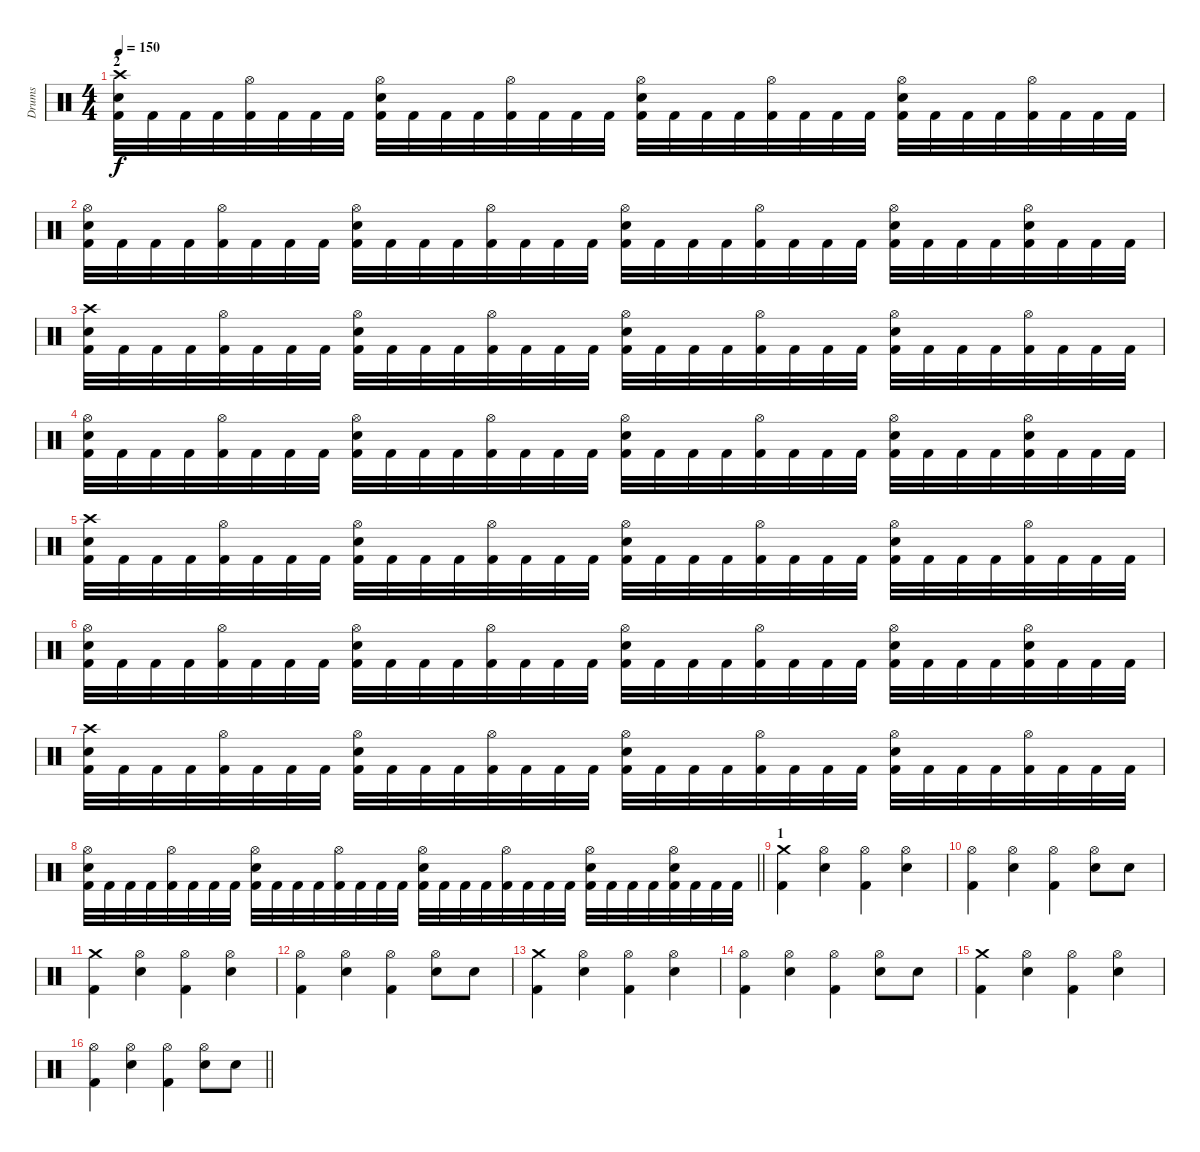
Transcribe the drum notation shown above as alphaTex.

\track ("Drums" "Drums") {instrument percussion}
\staff {score}
\articulation defaults
\ts (4 4)
\section ("" "2")
\tempo 150
\clef neutral
\ks c
("Crash high (hit)" "Snare (hit) 2" "Kick (hit) 2").32{dy f} "Kick (hit) 2".32 "Kick (hit) 2".32 "Kick (hit) 2".32 ("Hi-Hat (open)" "Kick (hit) 2").32 "Kick (hit) 2".32 "Kick (hit) 2".32 "Kick (hit) 2".32 ("Hi-Hat (open)" "Snare (hit) 2" "Kick (hit) 2").32 "Kick (hit) 2".32 "Kick (hit) 2".32 "Kick (hit) 2".32 ("Hi-Hat (open)" "Kick (hit) 2").32 "Kick (hit) 2".32 "Kick (hit) 2".32 "Kick (hit) 2".32 ("Hi-Hat (open)" "Snare (hit) 2" "Kick (hit) 2").32 "Kick (hit) 2".32 "Kick (hit) 2".32 "Kick (hit) 2".32 ("Hi-Hat (open)" "Kick (hit) 2").32 "Kick (hit) 2".32 "Kick (hit) 2".32 "Kick (hit) 2".32 ("Hi-Hat (open)" "Snare (hit) 2" "Kick (hit) 2").32 "Kick (hit) 2".32 "Kick (hit) 2".32 "Kick (hit) 2".32 ("Hi-Hat (open)" "Kick (hit) 2").32 "Kick (hit) 2".32 "Kick (hit) 2".32 "Kick (hit) 2".32 |
("Hi-Hat (open)" "Snare (hit) 2" "Kick (hit) 2").32 "Kick (hit) 2".32 "Kick (hit) 2".32 "Kick (hit) 2".32 ("Hi-Hat (open)" "Kick (hit) 2").32 "Kick (hit) 2".32 "Kick (hit) 2".32 "Kick (hit) 2".32 ("Hi-Hat (open)" "Snare (hit) 2" "Kick (hit) 2").32 "Kick (hit) 2".32 "Kick (hit) 2".32 "Kick (hit) 2".32 ("Hi-Hat (open)" "Kick (hit) 2").32 "Kick (hit) 2".32 "Kick (hit) 2".32 "Kick (hit) 2".32 ("Hi-Hat (open)" "Snare (hit) 2" "Kick (hit) 2").32 "Kick (hit) 2".32 "Kick (hit) 2".32 "Kick (hit) 2".32 ("Hi-Hat (open)" "Kick (hit) 2").32 "Kick (hit) 2".32 "Kick (hit) 2".32 "Kick (hit) 2".32 ("Hi-Hat (open)" "Snare (hit) 2" "Kick (hit) 2").32 "Kick (hit) 2".32 "Kick (hit) 2".32 "Kick (hit) 2".32 ("Hi-Hat (open)" "Snare (hit) 2" "Kick (hit) 2").32 "Kick (hit) 2".32 "Kick (hit) 2".32 "Kick (hit) 2".32 |
("Crash high (hit)" "Snare (hit) 2" "Kick (hit) 2").32 "Kick (hit) 2".32 "Kick (hit) 2".32 "Kick (hit) 2".32 ("Hi-Hat (open)" "Kick (hit) 2").32 "Kick (hit) 2".32 "Kick (hit) 2".32 "Kick (hit) 2".32 ("Hi-Hat (open)" "Snare (hit) 2" "Kick (hit) 2").32 "Kick (hit) 2".32 "Kick (hit) 2".32 "Kick (hit) 2".32 ("Hi-Hat (open)" "Kick (hit) 2").32 "Kick (hit) 2".32 "Kick (hit) 2".32 "Kick (hit) 2".32 ("Hi-Hat (open)" "Snare (hit) 2" "Kick (hit) 2").32 "Kick (hit) 2".32 "Kick (hit) 2".32 "Kick (hit) 2".32 ("Hi-Hat (open)" "Kick (hit) 2").32 "Kick (hit) 2".32 "Kick (hit) 2".32 "Kick (hit) 2".32 ("Hi-Hat (open)" "Snare (hit) 2" "Kick (hit) 2").32 "Kick (hit) 2".32 "Kick (hit) 2".32 "Kick (hit) 2".32 ("Hi-Hat (open)" "Kick (hit) 2").32 "Kick (hit) 2".32 "Kick (hit) 2".32 "Kick (hit) 2".32 |
("Hi-Hat (open)" "Snare (hit) 2" "Kick (hit) 2").32 "Kick (hit) 2".32 "Kick (hit) 2".32 "Kick (hit) 2".32 ("Hi-Hat (open)" "Kick (hit) 2").32 "Kick (hit) 2".32 "Kick (hit) 2".32 "Kick (hit) 2".32 ("Hi-Hat (open)" "Snare (hit) 2" "Kick (hit) 2").32 "Kick (hit) 2".32 "Kick (hit) 2".32 "Kick (hit) 2".32 ("Hi-Hat (open)" "Kick (hit) 2").32 "Kick (hit) 2".32 "Kick (hit) 2".32 "Kick (hit) 2".32 ("Hi-Hat (open)" "Snare (hit) 2" "Kick (hit) 2").32 "Kick (hit) 2".32 "Kick (hit) 2".32 "Kick (hit) 2".32 ("Hi-Hat (open)" "Kick (hit) 2").32 "Kick (hit) 2".32 "Kick (hit) 2".32 "Kick (hit) 2".32 ("Hi-Hat (open)" "Snare (hit) 2" "Kick (hit) 2").32 "Kick (hit) 2".32 "Kick (hit) 2".32 "Kick (hit) 2".32 ("Hi-Hat (open)" "Snare (hit) 2" "Kick (hit) 2").32 "Kick (hit) 2".32 "Kick (hit) 2".32 "Kick (hit) 2".32 |
("Crash high (hit)" "Snare (hit) 2" "Kick (hit) 2").32 "Kick (hit) 2".32 "Kick (hit) 2".32 "Kick (hit) 2".32 ("Hi-Hat (open)" "Kick (hit) 2").32 "Kick (hit) 2".32 "Kick (hit) 2".32 "Kick (hit) 2".32 ("Hi-Hat (open)" "Snare (hit) 2" "Kick (hit) 2").32 "Kick (hit) 2".32 "Kick (hit) 2".32 "Kick (hit) 2".32 ("Hi-Hat (open)" "Kick (hit) 2").32 "Kick (hit) 2".32 "Kick (hit) 2".32 "Kick (hit) 2".32 ("Hi-Hat (open)" "Snare (hit) 2" "Kick (hit) 2").32 "Kick (hit) 2".32 "Kick (hit) 2".32 "Kick (hit) 2".32 ("Hi-Hat (open)" "Kick (hit) 2").32 "Kick (hit) 2".32 "Kick (hit) 2".32 "Kick (hit) 2".32 ("Hi-Hat (open)" "Snare (hit) 2" "Kick (hit) 2").32 "Kick (hit) 2".32 "Kick (hit) 2".32 "Kick (hit) 2".32 ("Hi-Hat (open)" "Kick (hit) 2").32 "Kick (hit) 2".32 "Kick (hit) 2".32 "Kick (hit) 2".32 |
("Hi-Hat (open)" "Snare (hit) 2" "Kick (hit) 2").32 "Kick (hit) 2".32 "Kick (hit) 2".32 "Kick (hit) 2".32 ("Hi-Hat (open)" "Kick (hit) 2").32 "Kick (hit) 2".32 "Kick (hit) 2".32 "Kick (hit) 2".32 ("Hi-Hat (open)" "Snare (hit) 2" "Kick (hit) 2").32 "Kick (hit) 2".32 "Kick (hit) 2".32 "Kick (hit) 2".32 ("Hi-Hat (open)" "Kick (hit) 2").32 "Kick (hit) 2".32 "Kick (hit) 2".32 "Kick (hit) 2".32 ("Hi-Hat (open)" "Snare (hit) 2" "Kick (hit) 2").32 "Kick (hit) 2".32 "Kick (hit) 2".32 "Kick (hit) 2".32 ("Hi-Hat (open)" "Kick (hit) 2").32 "Kick (hit) 2".32 "Kick (hit) 2".32 "Kick (hit) 2".32 ("Hi-Hat (open)" "Snare (hit) 2" "Kick (hit) 2").32 "Kick (hit) 2".32 "Kick (hit) 2".32 "Kick (hit) 2".32 ("Hi-Hat (open)" "Snare (hit) 2" "Kick (hit) 2").32 "Kick (hit) 2".32 "Kick (hit) 2".32 "Kick (hit) 2".32 |
("Crash high (hit)" "Snare (hit) 2" "Kick (hit) 2").32 "Kick (hit) 2".32 "Kick (hit) 2".32 "Kick (hit) 2".32 ("Hi-Hat (open)" "Kick (hit) 2").32 "Kick (hit) 2".32 "Kick (hit) 2".32 "Kick (hit) 2".32 ("Hi-Hat (open)" "Snare (hit) 2" "Kick (hit) 2").32 "Kick (hit) 2".32 "Kick (hit) 2".32 "Kick (hit) 2".32 ("Hi-Hat (open)" "Kick (hit) 2").32 "Kick (hit) 2".32 "Kick (hit) 2".32 "Kick (hit) 2".32 ("Hi-Hat (open)" "Snare (hit) 2" "Kick (hit) 2").32 "Kick (hit) 2".32 "Kick (hit) 2".32 "Kick (hit) 2".32 ("Hi-Hat (open)" "Kick (hit) 2").32 "Kick (hit) 2".32 "Kick (hit) 2".32 "Kick (hit) 2".32 ("Hi-Hat (open)" "Snare (hit) 2" "Kick (hit) 2").32 "Kick (hit) 2".32 "Kick (hit) 2".32 "Kick (hit) 2".32 ("Hi-Hat (open)" "Kick (hit) 2").32 "Kick (hit) 2".32 "Kick (hit) 2".32 "Kick (hit) 2".32 |
\barLineRight lightlight
("Hi-Hat (open)" "Snare (hit) 2" "Kick (hit) 2").32 "Kick (hit) 2".32 "Kick (hit) 2".32 "Kick (hit) 2".32 ("Hi-Hat (open)" "Kick (hit) 2").32 "Kick (hit) 2".32 "Kick (hit) 2".32 "Kick (hit) 2".32 ("Hi-Hat (open)" "Snare (hit) 2" "Kick (hit) 2").32 "Kick (hit) 2".32 "Kick (hit) 2".32 "Kick (hit) 2".32 ("Hi-Hat (open)" "Kick (hit) 2").32 "Kick (hit) 2".32 "Kick (hit) 2".32 "Kick (hit) 2".32 ("Hi-Hat (open)" "Snare (hit) 2" "Kick (hit) 2").32 "Kick (hit) 2".32 "Kick (hit) 2".32 "Kick (hit) 2".32 ("Hi-Hat (open)" "Kick (hit) 2").32 "Kick (hit) 2".32 "Kick (hit) 2".32 "Kick (hit) 2".32 ("Hi-Hat (open)" "Snare (hit) 2" "Kick (hit) 2").32 "Kick (hit) 2".32 "Kick (hit) 2".32 "Kick (hit) 2".32 ("Hi-Hat (open)" "Snare (hit) 2" "Kick (hit) 2").32 "Kick (hit) 2".32 "Kick (hit) 2".32 "Kick (hit) 2".32 |
\section ("" "1")
("Crash medium (hit)" "Kick (hit) 2").4 ("Hi-Hat (open)" "Snare (hit) 2").4 ("Hi-Hat (open)" "Kick (hit) 2").4 ("Hi-Hat (open)" "Snare (hit) 2").4 |
("Hi-Hat (open)" "Kick (hit) 2").4 ("Hi-Hat (open)" "Snare (hit) 2").4 ("Hi-Hat (open)" "Kick (hit) 2").4 ("Hi-Hat (open)" "Snare (hit) 2").8 "Snare (hit) 2".8 |
("Crash medium (hit)" "Kick (hit) 2").4 ("Hi-Hat (open)" "Snare (hit) 2").4 ("Hi-Hat (open)" "Kick (hit) 2").4 ("Hi-Hat (open)" "Snare (hit) 2").4 |
("Hi-Hat (open)" "Kick (hit) 2").4 ("Hi-Hat (open)" "Snare (hit) 2").4 ("Hi-Hat (open)" "Kick (hit) 2").4 ("Hi-Hat (open)" "Snare (hit) 2").8 "Snare (hit) 2".8 |
("Crash medium (hit)" "Kick (hit) 2").4 ("Hi-Hat (open)" "Snare (hit) 2").4 ("Hi-Hat (open)" "Kick (hit) 2").4 ("Hi-Hat (open)" "Snare (hit) 2").4 |
("Hi-Hat (open)" "Kick (hit) 2").4 ("Hi-Hat (open)" "Snare (hit) 2").4 ("Hi-Hat (open)" "Kick (hit) 2").4 ("Hi-Hat (open)" "Snare (hit) 2").8 "Snare (hit) 2".8 |
("Crash medium (hit)" "Kick (hit) 2").4 ("Hi-Hat (open)" "Snare (hit) 2").4 ("Hi-Hat (open)" "Kick (hit) 2").4 ("Hi-Hat (open)" "Snare (hit) 2").4 |
\barLineRight lightlight
("Hi-Hat (open)" "Kick (hit) 2").4 ("Hi-Hat (open)" "Snare (hit) 2").4 ("Hi-Hat (open)" "Kick (hit) 2").4 ("Hi-Hat (open)" "Snare (hit) 2").8 "Snare (hit) 2".8
